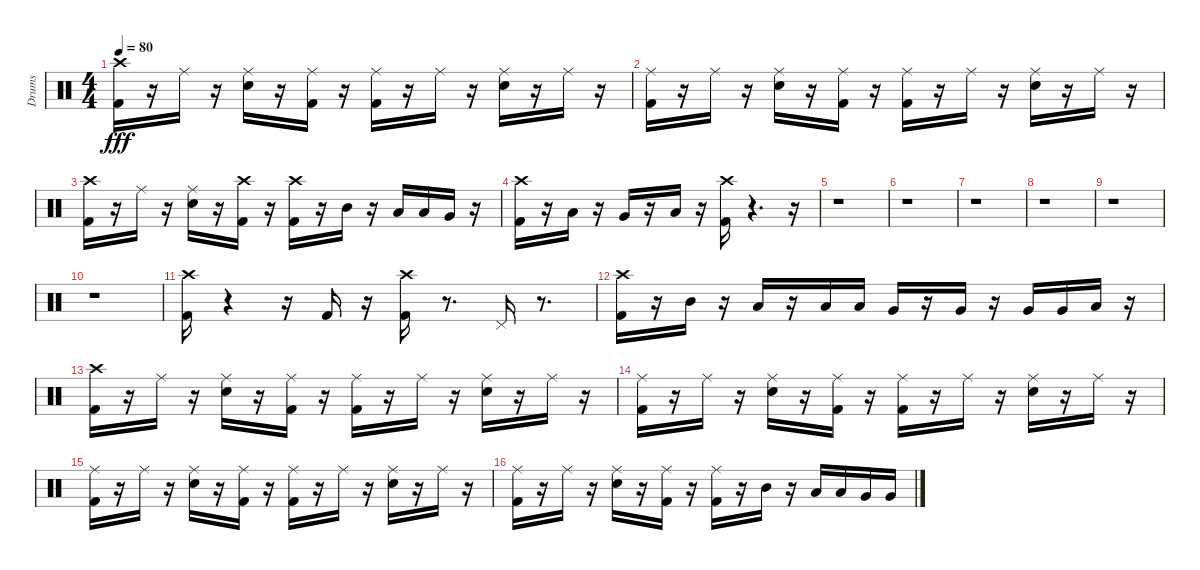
\track ("Drums" "Drums") {instrument percussion}
\staff {score}
\articulation defaults
\ts (4 4)
\tempo 80
\clef neutral
\ks c
("Kick (hit) 2" "Crash high (hit)").16{dy fff} r.16 "Ride (middle)".16 r.16 ("Ride (middle)" "Electric Snare (hit)").16 r.16 ("Ride (middle)" "Kick (hit) 2").16 r.16 ("Ride (middle)" "Kick (hit) 2").16 r.16 "Ride (middle)".16 r.16 ("Ride (middle)" "Electric Snare (hit)").16 r.16 "Ride (middle)".16 r.16 |
("Kick (hit) 2" "Ride (middle)").16 r.16 "Ride (middle)".16 r.16 ("Electric Snare (hit)" "Ride (middle)").16 r.16 ("Kick (hit) 2" "Ride (middle)").16 r.16 ("Kick (hit) 2" "Ride (middle)").16 r.16 "Ride (middle)".16 r.16 ("Electric Snare (hit)" "Ride (middle)").16 r.16 "Ride (middle)".16 r.16 |
("Crash high (hit)" "Kick (hit) 2").16 r.16 "Ride (middle)".16 r.16 ("Electric Snare (hit)" "Ride (middle)").16 r.16 ("Crash high (hit)" "Kick (hit) 2").16 r.16 ("Crash high (hit)" "Kick (hit) 2").16 r.16 "Mid Tom (hit)".16 r.16 "Low Tom (hit)".16 "Low Tom (hit)".16 "Very Low Tom (hit)".16 r.16 |
("Crash high (hit)" "Kick (hit) 2").16 r.16 "Low Tom (hit)".16 r.16 "Very Low Tom (hit)".16 r.16 "Low Floor Tom (hit)".16 r.16 ("Crash high (hit)" "Kick (hit) 2").16 r.4{d} r.16 |
r.1 |
r.1 |
r.1 |
r.1 |
r.1 |
r.1 |
("Crash high (hit)" "Kick (hit) 2").16 r.4 r.16 "Kick (hit) 2".16 r.16 ("Crash high (hit)" "Kick (hit) 2").16 r.8{d} "Pedal Hi-Hat (hit)".16 r.8{d} |
("Crash high (hit)" "Kick (hit) 2").16 r.16 "Mid Tom (hit)".16 r.16 "Low Tom (hit)".16 r.16 "Low Tom (hit)".16 "Low Tom (hit)".16 "Very Low Tom (hit)".16 r.16 "Very Low Tom (hit)".16 r.16 "Very Low Tom (hit)".16 "Very Low Tom (hit)".16 "Low Floor Tom (hit)".16 r.16 |
("Crash high (hit)" "Kick (hit) 2").16 r.16 "Ride (middle)".16 r.16 ("Electric Snare (hit)" "Ride (middle)").16 r.16 ("Kick (hit) 2" "Ride (middle)").16 r.16 ("Kick (hit) 2" "Ride (middle)").16 r.16 "Ride (middle)".16 r.16 ("Electric Snare (hit)" "Ride (middle)").16 r.16 "Ride (middle)".16 r.16 |
("Ride (middle)" "Kick (hit) 2").16 r.16 "Ride (middle)".16 r.16 ("Ride (middle)" "Electric Snare (hit)").16 r.16 ("Ride (middle)" "Kick (hit) 2").16 r.16 ("Ride (middle)" "Kick (hit) 2").16 r.16 "Ride (middle)".16 r.16 ("Ride (middle)" "Electric Snare (hit)").16 r.16 "Ride (middle)".16 r.16 |
("Kick (hit) 2" "Ride (middle)").16 r.16 "Ride (middle)".16 r.16 ("Electric Snare (hit)" "Ride (middle)").16 r.16 ("Kick (hit) 2" "Ride (middle)").16 r.16 ("Kick (hit) 2" "Ride (middle)").16 r.16 "Ride (middle)".16 r.16 ("Electric Snare (hit)" "Ride (middle)").16 r.16 "Ride (middle)".16 r.16 |
("Kick (hit) 2" "Ride (middle)").16 r.16 "Ride (middle)".16 r.16 ("Electric Snare (hit)" "Ride (middle)").16 r.16 ("Kick (hit) 2" "Ride (middle)").16 r.16 ("Ride (middle)" "Kick (hit) 2").16 r.16 "Mid Tom (hit)".16 r.16 "Low Tom (hit)".16 "Low Tom (hit)".16 "Very Low Tom (hit)".16 "Very Low Tom (hit)".16
